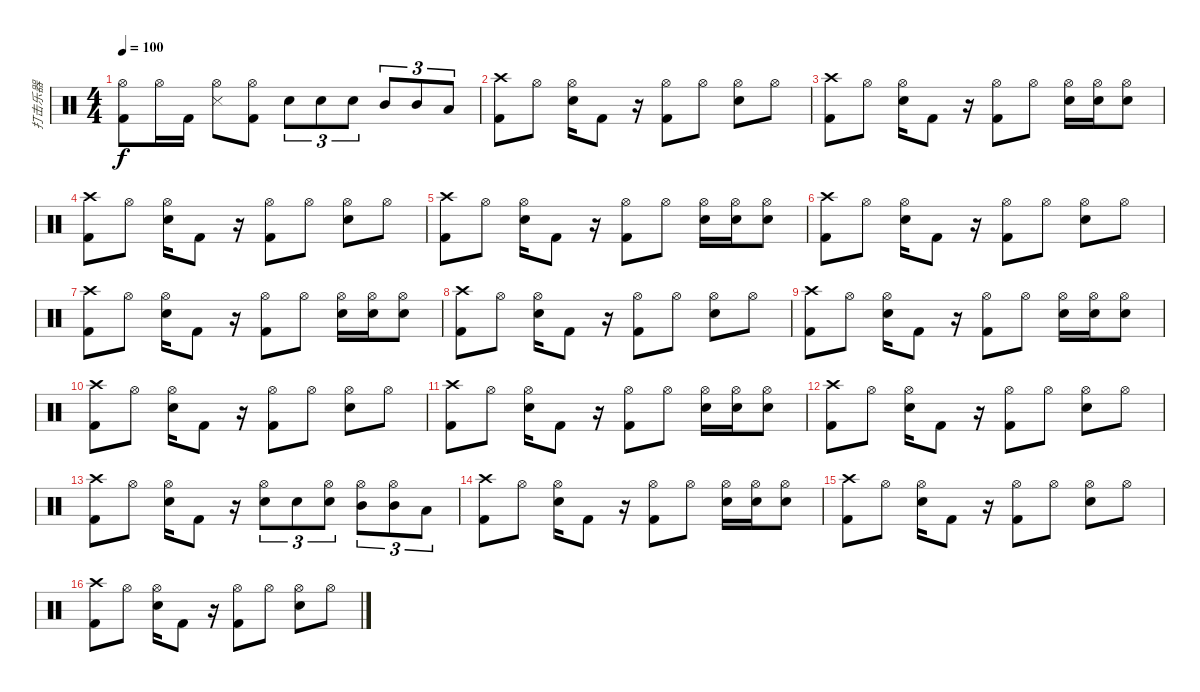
\track ("打击乐器" "打击乐器") {instrument percussion}
\staff {score}
\articulation defaults
\ts (4 4)
\tempo 100
\clef neutral
\ks c
("Hi-Hat (open)" "Kick (hit) 2").8{dy f} "Hi-Hat (open)".16 "Kick (hit) 2".16 ("Snare (side stick) 3" "Hi-Hat (open)").8 ("Kick (hit) 2" "Hi-Hat (open)").8 "Electric Snare (hit)".8{tu (3 2)} "Electric Snare (hit)".8{tu (3 2)} "Electric Snare (hit)".8{tu (3 2)} "Mid Tom (hit)".8{tu (3 2)} "Mid Tom (hit)".8{tu (3 2)} "Low Tom (hit)".8{tu (3 2)} |
("Crash high (hit)" "Kick (hit) 2").8 "Hi-Hat (open)".8 ("Electric Snare (hit)" "Hi-Hat (open)").16 "Kick (hit) 2".8 r.16 ("Kick (hit) 2" "Hi-Hat (open)").8 "Hi-Hat (open)".8 ("Electric Snare (hit)" "Hi-Hat (open)").8 "Hi-Hat (open)".8 |
("Crash high (hit)" "Kick (hit) 2").8 "Hi-Hat (open)".8 ("Electric Snare (hit)" "Hi-Hat (open)").16 "Kick (hit) 2".8 r.16 ("Kick (hit) 2" "Hi-Hat (open)").8 "Hi-Hat (open)".8 ("Electric Snare (hit)" "Hi-Hat (open)").16 ("Electric Snare (hit)" "Hi-Hat (open)").16 ("Electric Snare (hit)" "Hi-Hat (open)").8 |
("Crash high (hit)" "Kick (hit) 2").8 "Hi-Hat (open)".8 ("Electric Snare (hit)" "Hi-Hat (open)").16 "Kick (hit) 2".8 r.16 ("Kick (hit) 2" "Hi-Hat (open)").8 "Hi-Hat (open)".8 ("Electric Snare (hit)" "Hi-Hat (open)").8 "Hi-Hat (open)".8 |
("Crash high (hit)" "Kick (hit) 2").8 "Hi-Hat (open)".8 ("Electric Snare (hit)" "Hi-Hat (open)").16 "Kick (hit) 2".8 r.16 ("Kick (hit) 2" "Hi-Hat (open)").8 "Hi-Hat (open)".8 ("Electric Snare (hit)" "Hi-Hat (open)").16 ("Electric Snare (hit)" "Hi-Hat (open)").16 ("Electric Snare (hit)" "Hi-Hat (open)").8 |
("Crash high (hit)" "Kick (hit) 2").8 "Hi-Hat (open)".8 ("Electric Snare (hit)" "Hi-Hat (open)").16 "Kick (hit) 2".8 r.16 ("Kick (hit) 2" "Hi-Hat (open)").8 "Hi-Hat (open)".8 ("Electric Snare (hit)" "Hi-Hat (open)").8 "Hi-Hat (open)".8 |
("Crash high (hit)" "Kick (hit) 2").8 "Hi-Hat (open)".8 ("Electric Snare (hit)" "Hi-Hat (open)").16 "Kick (hit) 2".8 r.16 ("Kick (hit) 2" "Hi-Hat (open)").8 "Hi-Hat (open)".8 ("Electric Snare (hit)" "Hi-Hat (open)").16 ("Electric Snare (hit)" "Hi-Hat (open)").16 ("Electric Snare (hit)" "Hi-Hat (open)").8 |
("Crash high (hit)" "Kick (hit) 2").8 "Hi-Hat (open)".8 ("Electric Snare (hit)" "Hi-Hat (open)").16 "Kick (hit) 2".8 r.16 ("Kick (hit) 2" "Hi-Hat (open)").8 "Hi-Hat (open)".8 ("Electric Snare (hit)" "Hi-Hat (open)").8 "Hi-Hat (open)".8 |
("Crash high (hit)" "Kick (hit) 2").8 "Hi-Hat (open)".8 ("Electric Snare (hit)" "Hi-Hat (open)").16 "Kick (hit) 2".8 r.16 ("Kick (hit) 2" "Hi-Hat (open)").8 "Hi-Hat (open)".8 ("Electric Snare (hit)" "Hi-Hat (open)").16 ("Electric Snare (hit)" "Hi-Hat (open)").16 ("Electric Snare (hit)" "Hi-Hat (open)").8 |
("Crash high (hit)" "Kick (hit) 2").8 "Hi-Hat (open)".8 ("Electric Snare (hit)" "Hi-Hat (open)").16 "Kick (hit) 2".8 r.16 ("Kick (hit) 2" "Hi-Hat (open)").8 "Hi-Hat (open)".8 ("Electric Snare (hit)" "Hi-Hat (open)").8 "Hi-Hat (open)".8 |
("Crash high (hit)" "Kick (hit) 2").8 "Hi-Hat (open)".8 ("Electric Snare (hit)" "Hi-Hat (open)").16 "Kick (hit) 2".8 r.16 ("Kick (hit) 2" "Hi-Hat (open)").8 "Hi-Hat (open)".8 ("Electric Snare (hit)" "Hi-Hat (open)").16 ("Electric Snare (hit)" "Hi-Hat (open)").16 ("Electric Snare (hit)" "Hi-Hat (open)").8 |
("Crash high (hit)" "Kick (hit) 2").8 "Hi-Hat (open)".8 ("Electric Snare (hit)" "Hi-Hat (open)").16 "Kick (hit) 2".8 r.16 ("Kick (hit) 2" "Hi-Hat (open)").8 "Hi-Hat (open)".8 ("Electric Snare (hit)" "Hi-Hat (open)").8 "Hi-Hat (open)".8 |
("Crash high (hit)" "Kick (hit) 2").8 "Hi-Hat (open)".8 ("Electric Snare (hit)" "Hi-Hat (open)").16 "Kick (hit) 2".8 r.16 ("Electric Snare (hit)" "Hi-Hat (open)").8{tu (3 2)} "Electric Snare (hit)".8{tu (3 2)} ("Electric Snare (hit)" "Hi-Hat (open)").8{tu (3 2)} ("Mid Tom (hit)" "Hi-Hat (open)").8{tu (3 2)} ("Mid Tom (hit)" "Hi-Hat (open)").8{tu (3 2)} "Low Tom (hit)".8{tu (3 2)} |
("Crash high (hit)" "Kick (hit) 2").8 "Hi-Hat (open)".8 ("Electric Snare (hit)" "Hi-Hat (open)").16 "Kick (hit) 2".8 r.16 ("Kick (hit) 2" "Hi-Hat (open)").8 "Hi-Hat (open)".8 ("Electric Snare (hit)" "Hi-Hat (open)").16 ("Electric Snare (hit)" "Hi-Hat (open)").16 ("Electric Snare (hit)" "Hi-Hat (open)").8 |
("Crash high (hit)" "Kick (hit) 2").8 "Hi-Hat (open)".8 ("Electric Snare (hit)" "Hi-Hat (open)").16 "Kick (hit) 2".8 r.16 ("Kick (hit) 2" "Hi-Hat (open)").8 "Hi-Hat (open)".8 ("Electric Snare (hit)" "Hi-Hat (open)").8 "Hi-Hat (open)".8 |
("Crash high (hit)" "Kick (hit) 2").8 "Hi-Hat (open)".8 ("Electric Snare (hit)" "Hi-Hat (open)").16 "Kick (hit) 2".8 r.16 ("Kick (hit) 2" "Hi-Hat (open)").8 "Hi-Hat (open)".8 ("Electric Snare (hit)" "Hi-Hat (open)").8 "Hi-Hat (open)".8
